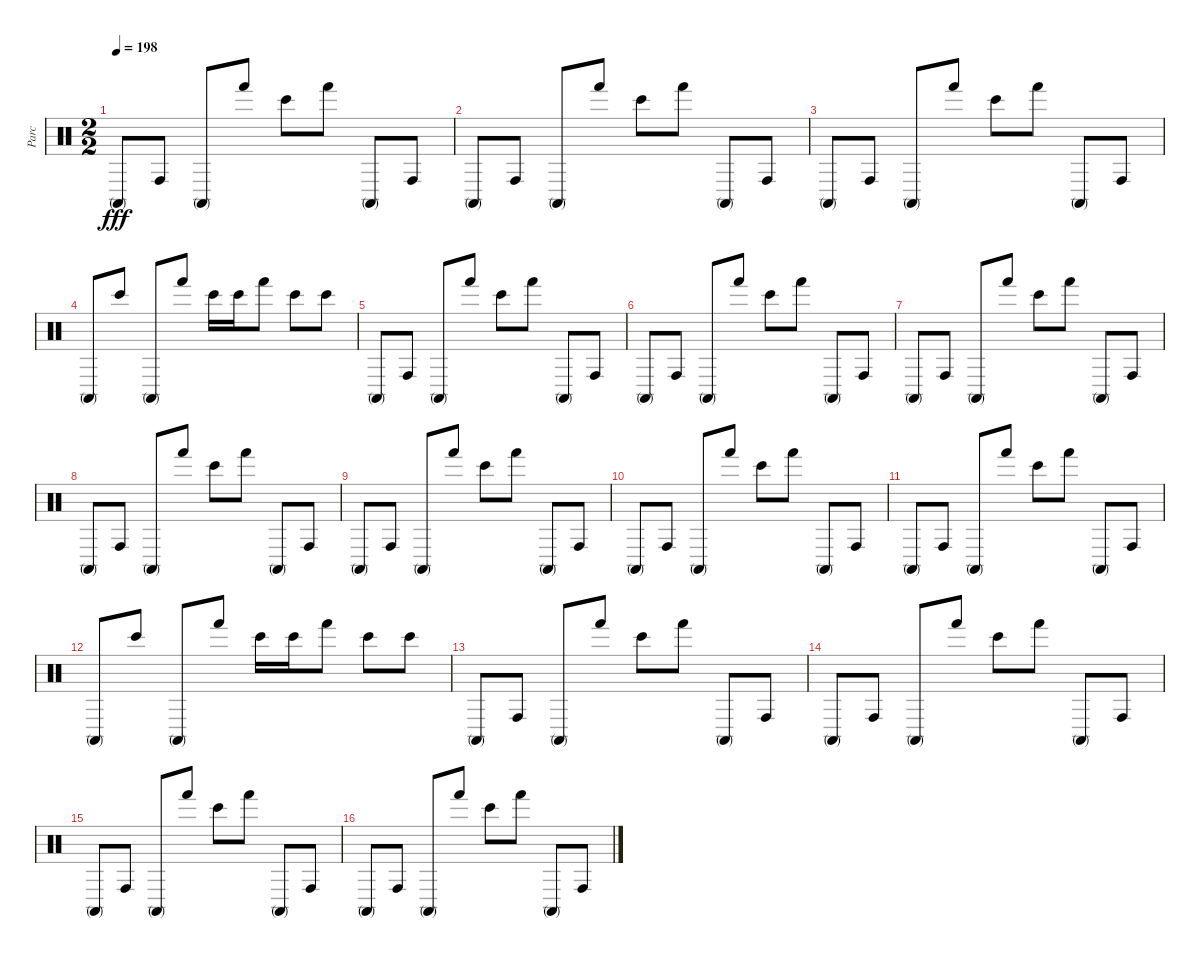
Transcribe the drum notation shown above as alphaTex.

\track ("Parc" "Parc") {instrument percussion}
\staff {score}
\articulation defaults
\ts (2 2)
\tempo 198
\clef neutral
\ks c "Conga high (mute)".8{dy fff} "Conga high (hit)".8 "Conga high (mute)".8 "Hand (hit)".8 "Bongo High (hit)".8 "Hand (hit)".8 "Conga high (mute)".8 "Conga high (hit)".8
|
"Conga high (mute)".8 "Conga high (hit)".8 "Conga high (mute)".8 "Hand (hit)".8 "Bongo High (hit)".8 "Hand (hit)".8 "Conga high (mute)".8 "Conga high (hit)".8 |
"Conga high (mute)".8 "Conga high (hit)".8 "Conga high (mute)".8 "Hand (hit)".8 "Bongo High (hit)".8 "Hand (hit)".8 "Conga high (mute)".8 "Conga high (hit)".8 |
"Conga high (mute)".8 "Bongo High (hit)".8 "Conga high (mute)".8 "Hand (hit)".8 "Bongo High (hit)".16 "Bongo High (hit)".16 "Hand (hit)".8 "Bongo High (hit)".8 "Bongo High (hit)".8 |
"Conga high (mute)".8 "Conga high (hit)".8 "Conga high (mute)".8 "Hand (hit)".8 "Bongo High (hit)".8 "Hand (hit)".8 "Conga high (mute)".8 "Conga high (hit)".8 |
"Conga high (mute)".8 "Conga high (hit)".8 "Conga high (mute)".8 "Hand (hit)".8 "Bongo High (hit)".8 "Hand (hit)".8 "Conga high (mute)".8 "Conga high (hit)".8 |
"Conga high (mute)".8 "Conga high (hit)".8 "Conga high (mute)".8 "Hand (hit)".8 "Bongo High (hit)".8 "Hand (hit)".8 "Conga high (mute)".8 "Conga high (hit)".8 |
"Conga high (mute)".8 "Conga high (hit)".8 "Conga high (mute)".8 "Hand (hit)".8 "Bongo High (hit)".8 "Hand (hit)".8 "Conga high (mute)".8 "Conga high (hit)".8 |
"Conga high (mute)".8 "Conga high (hit)".8 "Conga high (mute)".8 "Hand (hit)".8 "Bongo High (hit)".8 "Hand (hit)".8 "Conga high (mute)".8 "Conga high (hit)".8 |
"Conga high (mute)".8 "Conga high (hit)".8 "Conga high (mute)".8 "Hand (hit)".8 "Bongo High (hit)".8 "Hand (hit)".8 "Conga high (mute)".8 "Conga high (hit)".8 |
"Conga high (mute)".8 "Conga high (hit)".8 "Conga high (mute)".8 "Hand (hit)".8 "Bongo High (hit)".8 "Hand (hit)".8 "Conga high (mute)".8 "Conga high (hit)".8 |
"Conga high (mute)".8 "Bongo High (hit)".8 "Conga high (mute)".8 "Hand (hit)".8 "Bongo High (hit)".16 "Bongo High (hit)".16 "Hand (hit)".8 "Bongo High (hit)".8 "Bongo High (hit)".8 |
"Conga high (mute)".8 "Conga high (hit)".8 "Conga high (mute)".8 "Hand (hit)".8 "Bongo High (hit)".8 "Hand (hit)".8 "Conga high (mute)".8 "Conga high (hit)".8 |
"Conga high (mute)".8 "Conga high (hit)".8 "Conga high (mute)".8 "Hand (hit)".8 "Bongo High (hit)".8 "Hand (hit)".8 "Conga high (mute)".8 "Conga high (hit)".8 |
"Conga high (mute)".8 "Conga high (hit)".8 "Conga high (mute)".8 "Hand (hit)".8 "Bongo High (hit)".8 "Hand (hit)".8 "Conga high (mute)".8 "Conga high (hit)".8 |
"Conga high (mute)".8 "Conga high (hit)".8 "Conga high (mute)".8 "Hand (hit)".8 "Bongo High (hit)".8 "Hand (hit)".8 "Conga high (mute)".8 "Conga high (hit)".8
